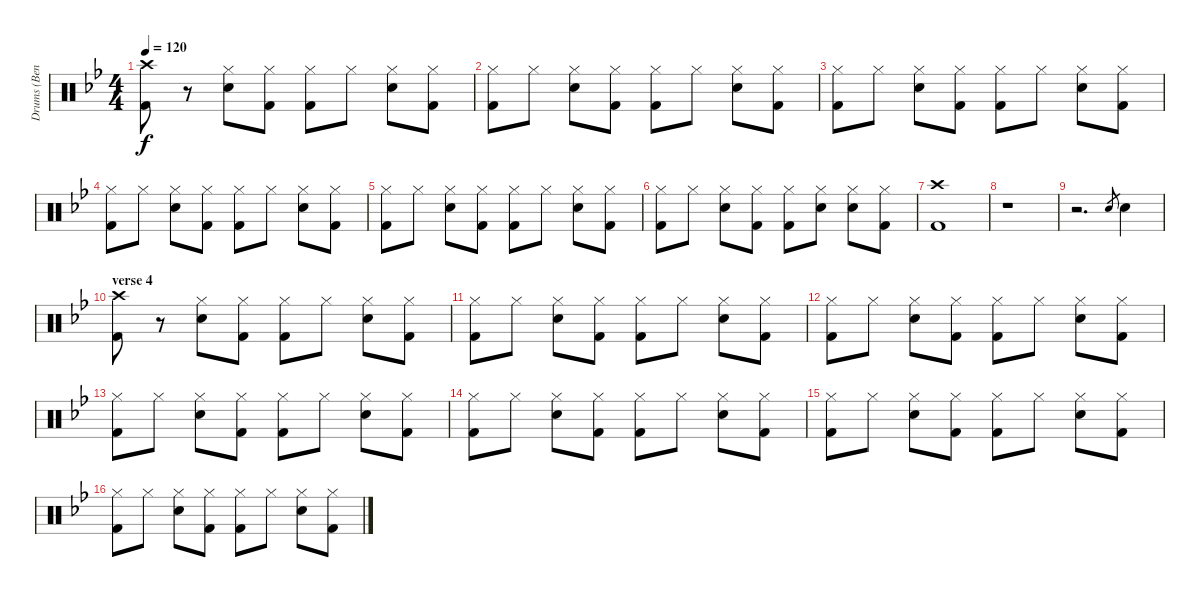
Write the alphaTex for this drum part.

\track ("Drums (Bengerg)" "Drums (Ben") {instrument percussion}
\staff {score}
\articulation defaults
\ts (4 4)
\tempo 120
\clef neutral
\ks bb
("Crash high (hit)" "Kick (hit) 2").8{dy f} r.8 ("Hi-Hat (closed)" "Electric Snare (hit)").8 ("Hi-Hat (closed)" "Kick (hit) 2").8 ("Hi-Hat (closed)" "Kick (hit) 2").8 "Hi-Hat (closed)".8 ("Hi-Hat (closed)" "Electric Snare (hit)").8 ("Hi-Hat (closed)" "Kick (hit) 2").8 |
("Hi-Hat (closed)" "Kick (hit) 2").8 "Hi-Hat (closed)".8 ("Hi-Hat (closed)" "Electric Snare (hit)").8 ("Hi-Hat (closed)" "Kick (hit) 2").8 ("Hi-Hat (closed)" "Kick (hit) 2").8 "Hi-Hat (closed)".8 ("Hi-Hat (closed)" "Electric Snare (hit)").8 ("Hi-Hat (closed)" "Kick (hit) 2").8 |
("Hi-Hat (closed)" "Kick (hit) 2").8 "Hi-Hat (closed)".8 ("Hi-Hat (closed)" "Electric Snare (hit)").8 ("Hi-Hat (closed)" "Kick (hit) 2").8 ("Hi-Hat (closed)" "Kick (hit) 2").8 "Hi-Hat (closed)".8 ("Hi-Hat (closed)" "Electric Snare (hit)").8 ("Hi-Hat (closed)" "Kick (hit) 2").8 |
("Hi-Hat (closed)" "Kick (hit) 2").8 "Hi-Hat (closed)".8 ("Hi-Hat (closed)" "Electric Snare (hit)").8 ("Hi-Hat (closed)" "Kick (hit) 2").8 ("Hi-Hat (closed)" "Kick (hit) 2").8 "Hi-Hat (closed)".8 ("Hi-Hat (closed)" "Electric Snare (hit)").8 ("Hi-Hat (closed)" "Kick (hit) 2").8 |
("Hi-Hat (closed)" "Kick (hit) 2").8 "Hi-Hat (closed)".8 ("Hi-Hat (closed)" "Electric Snare (hit)").8 ("Hi-Hat (closed)" "Kick (hit) 2").8 ("Hi-Hat (closed)" "Kick (hit) 2").8 "Hi-Hat (closed)".8 ("Hi-Hat (closed)" "Electric Snare (hit)").8 ("Hi-Hat (closed)" "Kick (hit) 2").8 |
("Hi-Hat (closed)" "Kick (hit) 2").8 "Hi-Hat (closed)".8 ("Hi-Hat (closed)" "Electric Snare (hit)").8 ("Hi-Hat (closed)" "Kick (hit) 2").8 ("Hi-Hat (closed)" "Kick (hit) 2").8 ("Hi-Hat (closed)" "Electric Snare (hit)").8 ("Hi-Hat (closed)" "Electric Snare (hit)").8 ("Hi-Hat (closed)" "Kick (hit) 2").8 |
("Crash high (hit)" "Kick (hit) 2").1 |
r.1 |
r.2{d} "Electric Snare (hit)".8{gr} "Electric Snare (hit)".4 |
\section ("" "verse 4")
("Crash high (hit)" "Kick (hit) 2").8 r.8 ("Hi-Hat (closed)" "Electric Snare (hit)").8 ("Hi-Hat (closed)" "Kick (hit) 2").8 ("Hi-Hat (closed)" "Kick (hit) 2").8 "Hi-Hat (closed)".8 ("Hi-Hat (closed)" "Electric Snare (hit)").8 ("Hi-Hat (closed)" "Kick (hit) 2").8 |
("Hi-Hat (closed)" "Kick (hit) 2").8 "Hi-Hat (closed)".8 ("Hi-Hat (closed)" "Electric Snare (hit)").8 ("Hi-Hat (closed)" "Kick (hit) 2").8 ("Hi-Hat (closed)" "Kick (hit) 2").8 "Hi-Hat (closed)".8 ("Hi-Hat (closed)" "Electric Snare (hit)").8 ("Hi-Hat (closed)" "Kick (hit) 2").8 |
("Hi-Hat (closed)" "Kick (hit) 2").8 "Hi-Hat (closed)".8 ("Hi-Hat (closed)" "Electric Snare (hit)").8 ("Hi-Hat (closed)" "Kick (hit) 2").8 ("Hi-Hat (closed)" "Kick (hit) 2").8 "Hi-Hat (closed)".8 ("Hi-Hat (closed)" "Electric Snare (hit)").8 ("Hi-Hat (closed)" "Kick (hit) 2").8 |
("Hi-Hat (closed)" "Kick (hit) 2").8 "Hi-Hat (closed)".8 ("Hi-Hat (closed)" "Electric Snare (hit)").8 ("Hi-Hat (closed)" "Kick (hit) 2").8 ("Hi-Hat (closed)" "Kick (hit) 2").8 "Hi-Hat (closed)".8 ("Hi-Hat (closed)" "Electric Snare (hit)").8 ("Hi-Hat (closed)" "Kick (hit) 2").8 |
("Hi-Hat (closed)" "Kick (hit) 2").8 "Hi-Hat (closed)".8 ("Hi-Hat (closed)" "Electric Snare (hit)").8 ("Hi-Hat (closed)" "Kick (hit) 2").8 ("Hi-Hat (closed)" "Kick (hit) 2").8 "Hi-Hat (closed)".8 ("Hi-Hat (closed)" "Electric Snare (hit)").8 ("Hi-Hat (closed)" "Kick (hit) 2").8 |
("Hi-Hat (closed)" "Kick (hit) 2").8 "Hi-Hat (closed)".8 ("Hi-Hat (closed)" "Electric Snare (hit)").8 ("Hi-Hat (closed)" "Kick (hit) 2").8 ("Hi-Hat (closed)" "Kick (hit) 2").8 "Hi-Hat (closed)".8 ("Hi-Hat (closed)" "Electric Snare (hit)").8 ("Hi-Hat (closed)" "Kick (hit) 2").8 |
("Hi-Hat (closed)" "Kick (hit) 2").8 "Hi-Hat (closed)".8 ("Hi-Hat (closed)" "Electric Snare (hit)").8 ("Hi-Hat (closed)" "Kick (hit) 2").8 ("Hi-Hat (closed)" "Kick (hit) 2").8 "Hi-Hat (closed)".8 ("Hi-Hat (closed)" "Electric Snare (hit)").8 ("Hi-Hat (closed)" "Kick (hit) 2").8
